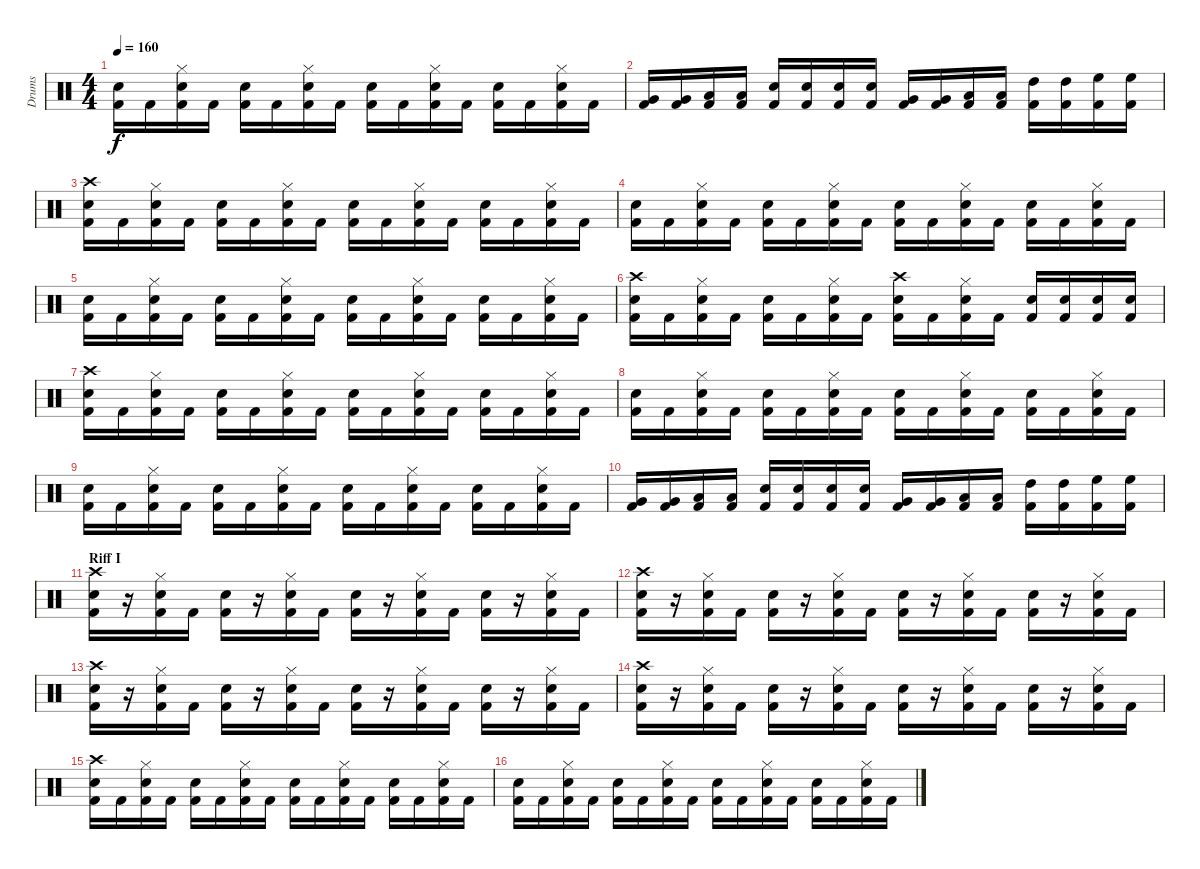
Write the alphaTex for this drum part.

\track ("Drums" "Drums") {instrument percussion}
\staff {score}
\articulation defaults
\ts (4 4)
\tempo 160
\clef neutral
\ks c
("Kick (hit) 2" "Snare (hit) 2").16{dy f} "Kick (hit) 2".16 ("Kick (hit) 2" "Snare (hit) 2" "Hi-Hat (closed)").16 "Kick (hit) 2".16 ("Kick (hit) 2" "Snare (hit) 2").16 "Kick (hit) 2".16 ("Kick (hit) 2" "Snare (hit) 2" "Hi-Hat (closed)").16 "Kick (hit) 2".16 ("Kick (hit) 2" "Snare (hit) 2").16 "Kick (hit) 2".16 ("Kick (hit) 2" "Snare (hit) 2" "Hi-Hat (closed)").16 "Kick (hit) 2".16 ("Kick (hit) 2" "Snare (hit) 2").16 "Kick (hit) 2".16 ("Kick (hit) 2" "Snare (hit) 2" "Hi-Hat (closed)").16 "Kick (hit) 2".16 |
("Kick (hit) 2" "Very Low Tom (hit)").16 ("Kick (hit) 2" "Very Low Tom (hit)").16 ("Kick (hit) 2" "Low Tom (hit)").16 ("Kick (hit) 2" "Low Tom (hit)").16 ("Kick (hit) 2" "Snare (hit) 2").16 ("Kick (hit) 2" "Snare (hit) 2").16 ("Kick (hit) 2" "Snare (hit) 2").16 ("Kick (hit) 2" "Snare (hit) 2").16 ("Kick (hit) 2" "Very Low Tom (hit)").16 ("Kick (hit) 2" "Very Low Tom (hit)").16 ("Kick (hit) 2" "Low Tom (hit)").16 ("Kick (hit) 2" "Low Tom (hit)").16 ("Kick (hit) 2" "High Tom (hit)").16 ("Kick (hit) 2" "High Tom (hit)").16 ("Kick (hit) 2" "High Floor Tom (hit)").16 ("Kick (hit) 2" "High Floor Tom (hit)").16 |
("Kick (hit) 2" "Snare (hit) 2" "Crash high (hit)").16 "Kick (hit) 2".16 ("Kick (hit) 2" "Snare (hit) 2" "Hi-Hat (closed)").16 "Kick (hit) 2".16 ("Kick (hit) 2" "Snare (hit) 2").16 "Kick (hit) 2".16 ("Kick (hit) 2" "Snare (hit) 2" "Hi-Hat (closed)").16 "Kick (hit) 2".16 ("Kick (hit) 2" "Snare (hit) 2").16 "Kick (hit) 2".16 ("Kick (hit) 2" "Snare (hit) 2" "Hi-Hat (closed)").16 "Kick (hit) 2".16 ("Kick (hit) 2" "Snare (hit) 2").16 "Kick (hit) 2".16 ("Kick (hit) 2" "Snare (hit) 2" "Hi-Hat (closed)").16 "Kick (hit) 2".16 |
("Kick (hit) 2" "Snare (hit) 2").16 "Kick (hit) 2".16 ("Kick (hit) 2" "Snare (hit) 2" "Hi-Hat (closed)").16 "Kick (hit) 2".16 ("Kick (hit) 2" "Snare (hit) 2").16 "Kick (hit) 2".16 ("Kick (hit) 2" "Snare (hit) 2" "Hi-Hat (closed)").16 "Kick (hit) 2".16 ("Kick (hit) 2" "Snare (hit) 2").16 "Kick (hit) 2".16 ("Kick (hit) 2" "Snare (hit) 2" "Hi-Hat (closed)").16 "Kick (hit) 2".16 ("Kick (hit) 2" "Snare (hit) 2").16 "Kick (hit) 2".16 ("Kick (hit) 2" "Snare (hit) 2" "Hi-Hat (closed)").16 "Kick (hit) 2".16 |
("Kick (hit) 2" "Snare (hit) 2").16 "Kick (hit) 2".16 ("Kick (hit) 2" "Snare (hit) 2" "Hi-Hat (closed)").16 "Kick (hit) 2".16 ("Kick (hit) 2" "Snare (hit) 2").16 "Kick (hit) 2".16 ("Kick (hit) 2" "Snare (hit) 2" "Hi-Hat (closed)").16 "Kick (hit) 2".16 ("Kick (hit) 2" "Snare (hit) 2").16 "Kick (hit) 2".16 ("Kick (hit) 2" "Snare (hit) 2" "Hi-Hat (closed)").16 "Kick (hit) 2".16 ("Kick (hit) 2" "Snare (hit) 2").16 "Kick (hit) 2".16 ("Kick (hit) 2" "Snare (hit) 2" "Hi-Hat (closed)").16 "Kick (hit) 2".16 |
("Kick (hit) 2" "Snare (hit) 2" "Crash high (hit)").16 "Kick (hit) 2".16 ("Kick (hit) 2" "Snare (hit) 2" "Hi-Hat (closed)").16 "Kick (hit) 2".16 ("Kick (hit) 2" "Snare (hit) 2").16 "Kick (hit) 2".16 ("Kick (hit) 2" "Snare (hit) 2" "Hi-Hat (closed)").16 "Kick (hit) 2".16 ("Kick (hit) 2" "Snare (hit) 2" "Crash high (hit)").16 "Kick (hit) 2".16 ("Kick (hit) 2" "Snare (hit) 2" "Hi-Hat (closed)").16 "Kick (hit) 2".16 ("Kick (hit) 2" "Snare (hit) 2").16 ("Kick (hit) 2" "Snare (hit) 2").16 ("Kick (hit) 2" "Snare (hit) 2").16 ("Kick (hit) 2" "Snare (hit) 2").16 |
("Kick (hit) 2" "Snare (hit) 2" "Crash high (hit)").16 "Kick (hit) 2".16 ("Kick (hit) 2" "Snare (hit) 2" "Hi-Hat (closed)").16 "Kick (hit) 2".16 ("Kick (hit) 2" "Snare (hit) 2").16 "Kick (hit) 2".16 ("Kick (hit) 2" "Snare (hit) 2" "Hi-Hat (closed)").16 "Kick (hit) 2".16 ("Kick (hit) 2" "Snare (hit) 2").16 "Kick (hit) 2".16 ("Kick (hit) 2" "Snare (hit) 2" "Hi-Hat (closed)").16 "Kick (hit) 2".16 ("Kick (hit) 2" "Snare (hit) 2").16 "Kick (hit) 2".16 ("Kick (hit) 2" "Snare (hit) 2" "Hi-Hat (closed)").16 "Kick (hit) 2".16 |
("Kick (hit) 2" "Snare (hit) 2").16 "Kick (hit) 2".16 ("Kick (hit) 2" "Snare (hit) 2" "Hi-Hat (closed)").16 "Kick (hit) 2".16 ("Kick (hit) 2" "Snare (hit) 2").16 "Kick (hit) 2".16 ("Kick (hit) 2" "Snare (hit) 2" "Hi-Hat (closed)").16 "Kick (hit) 2".16 ("Kick (hit) 2" "Snare (hit) 2").16 "Kick (hit) 2".16 ("Kick (hit) 2" "Snare (hit) 2" "Hi-Hat (closed)").16 "Kick (hit) 2".16 ("Kick (hit) 2" "Snare (hit) 2").16 "Kick (hit) 2".16 ("Kick (hit) 2" "Snare (hit) 2" "Hi-Hat (closed)").16 "Kick (hit) 2".16 |
("Kick (hit) 2" "Snare (hit) 2").16 "Kick (hit) 2".16 ("Kick (hit) 2" "Snare (hit) 2" "Hi-Hat (closed)").16 "Kick (hit) 2".16 ("Kick (hit) 2" "Snare (hit) 2").16 "Kick (hit) 2".16 ("Kick (hit) 2" "Snare (hit) 2" "Hi-Hat (closed)").16 "Kick (hit) 2".16 ("Kick (hit) 2" "Snare (hit) 2").16 "Kick (hit) 2".16 ("Kick (hit) 2" "Snare (hit) 2" "Hi-Hat (closed)").16 "Kick (hit) 2".16 ("Kick (hit) 2" "Snare (hit) 2").16 "Kick (hit) 2".16 ("Kick (hit) 2" "Snare (hit) 2" "Hi-Hat (closed)").16 "Kick (hit) 2".16 |
("Kick (hit) 2" "Very Low Tom (hit)").16 ("Kick (hit) 2" "Very Low Tom (hit)").16 ("Kick (hit) 2" "Low Tom (hit)").16 ("Kick (hit) 2" "Low Tom (hit)").16 ("Kick (hit) 2" "Snare (hit) 2").16 ("Kick (hit) 2" "Snare (hit) 2").16 ("Kick (hit) 2" "Snare (hit) 2").16 ("Kick (hit) 2" "Snare (hit) 2").16 ("Kick (hit) 2" "Very Low Tom (hit)").16 ("Kick (hit) 2" "Very Low Tom (hit)").16 ("Kick (hit) 2" "Low Tom (hit)").16 ("Kick (hit) 2" "Low Tom (hit)").16 ("Kick (hit) 2" "High Tom (hit)").16 ("Kick (hit) 2" "High Tom (hit)").16 ("Kick (hit) 2" "High Floor Tom (hit)").16 ("Kick (hit) 2" "High Floor Tom (hit)").16 |
\section ("" "Riff I")
("Kick (hit) 2" "Snare (hit) 2" "Crash high (hit)").16 r.16 ("Kick (hit) 2" "Snare (hit) 2" "Hi-Hat (closed)").16 "Kick (hit) 2".16 ("Kick (hit) 2" "Snare (hit) 2").16 r.16 ("Kick (hit) 2" "Snare (hit) 2" "Hi-Hat (closed)").16 "Kick (hit) 2".16 ("Kick (hit) 2" "Snare (hit) 2").16 r.16 ("Kick (hit) 2" "Snare (hit) 2" "Hi-Hat (closed)").16 "Kick (hit) 2".16 ("Kick (hit) 2" "Snare (hit) 2").16 r.16 ("Kick (hit) 2" "Snare (hit) 2" "Hi-Hat (closed)").16 "Kick (hit) 2".16 |
("Kick (hit) 2" "Snare (hit) 2" "Crash high (hit)").16 r.16 ("Kick (hit) 2" "Snare (hit) 2" "Hi-Hat (closed)").16 "Kick (hit) 2".16 ("Kick (hit) 2" "Snare (hit) 2").16 r.16 ("Kick (hit) 2" "Snare (hit) 2" "Hi-Hat (closed)").16 "Kick (hit) 2".16 ("Kick (hit) 2" "Snare (hit) 2").16 r.16 ("Kick (hit) 2" "Snare (hit) 2" "Hi-Hat (closed)").16 "Kick (hit) 2".16 ("Kick (hit) 2" "Snare (hit) 2").16 r.16 ("Kick (hit) 2" "Snare (hit) 2" "Hi-Hat (closed)").16 "Kick (hit) 2".16 |
("Kick (hit) 2" "Snare (hit) 2" "Crash high (hit)").16 r.16 ("Kick (hit) 2" "Snare (hit) 2" "Hi-Hat (closed)").16 "Kick (hit) 2".16 ("Kick (hit) 2" "Snare (hit) 2").16 r.16 ("Kick (hit) 2" "Snare (hit) 2" "Hi-Hat (closed)").16 "Kick (hit) 2".16 ("Kick (hit) 2" "Snare (hit) 2").16 r.16 ("Kick (hit) 2" "Snare (hit) 2" "Hi-Hat (closed)").16 "Kick (hit) 2".16 ("Kick (hit) 2" "Snare (hit) 2").16 r.16 ("Kick (hit) 2" "Snare (hit) 2" "Hi-Hat (closed)").16 "Kick (hit) 2".16 |
("Kick (hit) 2" "Snare (hit) 2" "Crash high (hit)").16 r.16 ("Kick (hit) 2" "Snare (hit) 2" "Hi-Hat (closed)").16 "Kick (hit) 2".16 ("Kick (hit) 2" "Snare (hit) 2").16 r.16 ("Kick (hit) 2" "Snare (hit) 2" "Hi-Hat (closed)").16 "Kick (hit) 2".16 ("Kick (hit) 2" "Snare (hit) 2").16 r.16 ("Kick (hit) 2" "Snare (hit) 2" "Hi-Hat (closed)").16 "Kick (hit) 2".16 ("Kick (hit) 2" "Snare (hit) 2").16 r.16 ("Kick (hit) 2" "Snare (hit) 2" "Hi-Hat (closed)").16 "Kick (hit) 2".16 |
("Kick (hit) 2" "Snare (hit) 2" "Crash high (hit)").16 "Kick (hit) 2".16 ("Kick (hit) 2" "Snare (hit) 2" "Hi-Hat (closed)").16 "Kick (hit) 2".16 ("Kick (hit) 2" "Snare (hit) 2").16 "Kick (hit) 2".16 ("Kick (hit) 2" "Snare (hit) 2" "Hi-Hat (closed)").16 "Kick (hit) 2".16 ("Kick (hit) 2" "Snare (hit) 2").16 "Kick (hit) 2".16 ("Kick (hit) 2" "Snare (hit) 2" "Hi-Hat (closed)").16 "Kick (hit) 2".16 ("Kick (hit) 2" "Snare (hit) 2").16 "Kick (hit) 2".16 ("Kick (hit) 2" "Snare (hit) 2" "Hi-Hat (closed)").16 "Kick (hit) 2".16 |
("Kick (hit) 2" "Snare (hit) 2").16 "Kick (hit) 2".16 ("Kick (hit) 2" "Snare (hit) 2" "Hi-Hat (closed)").16 "Kick (hit) 2".16 ("Kick (hit) 2" "Snare (hit) 2").16 "Kick (hit) 2".16 ("Kick (hit) 2" "Snare (hit) 2" "Hi-Hat (closed)").16 "Kick (hit) 2".16 ("Kick (hit) 2" "Snare (hit) 2").16 "Kick (hit) 2".16 ("Kick (hit) 2" "Snare (hit) 2" "Hi-Hat (closed)").16 "Kick (hit) 2".16 ("Kick (hit) 2" "Snare (hit) 2").16 "Kick (hit) 2".16 ("Kick (hit) 2" "Snare (hit) 2" "Hi-Hat (closed)").16 "Kick (hit) 2".16
